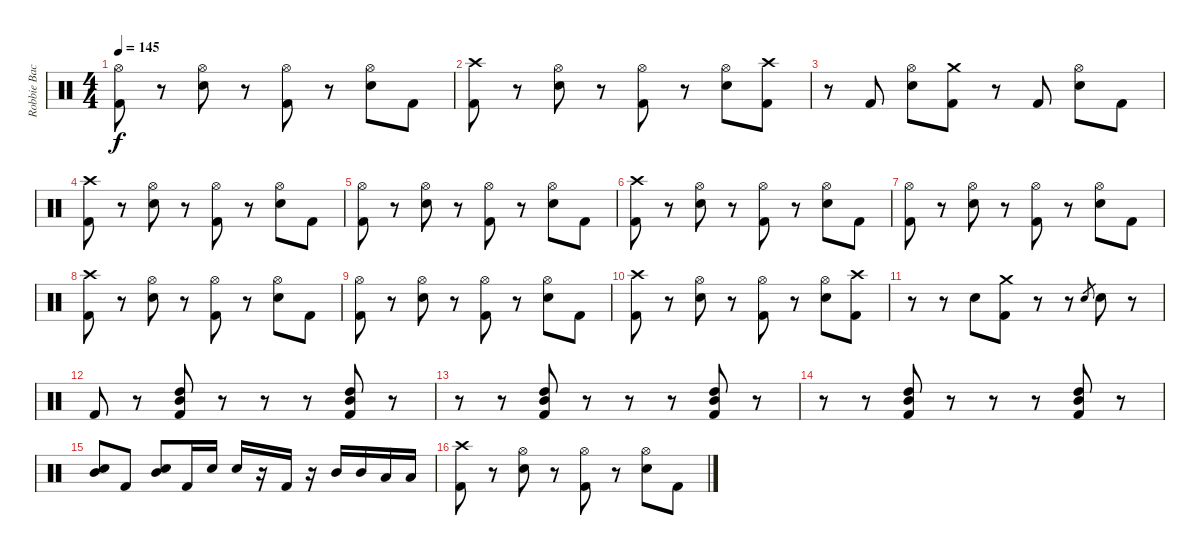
\track ("Robbie Bachman" "Robbie Bac") {instrument percussion}
\staff {score}
\articulation defaults
\ts (4 4)
\tempo 145
\clef neutral
\ks c
("Hi-Hat (open)" "Kick (hit) 2").8{dy f} r.8 ("Hi-Hat (open)" "Snare (hit) 2").8 r.8 ("Hi-Hat (open)" "Kick (hit) 2").8 r.8 ("Hi-Hat (open)" "Snare (hit) 2").8 "Kick (hit) 2".8 |
("Crash high (hit)" "Kick (hit) 2").8 r.8 ("Hi-Hat (open)" "Snare (hit) 2").8 r.8 ("Hi-Hat (open)" "Kick (hit) 2").8 r.8 ("Hi-Hat (open)" "Snare (hit) 2").8 ("Crash high (hit)" "Kick (hit) 2").8 |
r.8 "Kick (hit) 2".8 ("Hi-Hat (open)" "Snare (hit) 2").8 ("Crash medium (hit)" "Kick (hit) 2").8 r.8 "Kick (hit) 2".8 ("Hi-Hat (open)" "Snare (hit) 2").8 "Kick (hit) 2".8 |
("Crash high (hit)" "Kick (hit) 2").8 r.8 ("Hi-Hat (open)" "Snare (hit) 2").8 r.8 ("Hi-Hat (open)" "Kick (hit) 2").8 r.8 ("Hi-Hat (open)" "Snare (hit) 2").8 "Kick (hit) 2".8 |
("Hi-Hat (open)" "Kick (hit) 2").8 r.8 ("Hi-Hat (open)" "Snare (hit) 2").8 r.8 ("Hi-Hat (open)" "Kick (hit) 2").8 r.8 ("Hi-Hat (open)" "Snare (hit) 2").8 "Kick (hit) 2".8 |
("Crash high (hit)" "Kick (hit) 2").8 r.8 ("Hi-Hat (open)" "Snare (hit) 2").8 r.8 ("Hi-Hat (open)" "Kick (hit) 2").8 r.8 ("Hi-Hat (open)" "Snare (hit) 2").8 "Kick (hit) 2".8 |
("Hi-Hat (open)" "Kick (hit) 2").8 r.8 ("Hi-Hat (open)" "Snare (hit) 2").8 r.8 ("Hi-Hat (open)" "Kick (hit) 2").8 r.8 ("Hi-Hat (open)" "Snare (hit) 2").8 "Kick (hit) 2".8 |
("Crash high (hit)" "Kick (hit) 2").8 r.8 ("Hi-Hat (open)" "Snare (hit) 2").8 r.8 ("Hi-Hat (open)" "Kick (hit) 2").8 r.8 ("Hi-Hat (open)" "Snare (hit) 2").8 "Kick (hit) 2".8 |
("Hi-Hat (open)" "Kick (hit) 2").8 r.8 ("Hi-Hat (open)" "Snare (hit) 2").8 r.8 ("Hi-Hat (open)" "Kick (hit) 2").8 r.8 ("Hi-Hat (open)" "Snare (hit) 2").8 "Kick (hit) 2".8 |
("Crash high (hit)" "Kick (hit) 2").8 r.8 ("Hi-Hat (open)" "Snare (hit) 2").8 r.8 ("Hi-Hat (open)" "Kick (hit) 2").8 r.8 ("Hi-Hat (open)" "Snare (hit) 2").8 ("Crash high (hit)" "Kick (hit) 2").8 |
r.8 r.8 "Snare (hit) 2".8 ("Crash medium (hit)" "Kick (hit) 2").8 r.8 r.8 "Snare (hit) 2".8{gr} "Snare (hit) 2".8 r.8 |
"Kick (hit) 2".8 r.8 ("Mid Tom (hit)" "High Tom (hit)" "Kick (hit) 2").8 r.8 r.8 r.8 ("Mid Tom (hit)" "High Tom (hit)" "Kick (hit) 2").8 r.8 |
r.8 r.8 ("Mid Tom (hit)" "High Tom (hit)" "Kick (hit) 2").8 r.8 r.8 r.8 ("Mid Tom (hit)" "High Tom (hit)" "Kick (hit) 2").8 r.8 |
r.8 r.8 ("Mid Tom (hit)" "High Tom (hit)" "Kick (hit) 2").8 r.8 r.8 r.8 ("Mid Tom (hit)" "High Tom (hit)" "Kick (hit) 2").8 r.8 |
("Mid Tom (hit)" "Snare (hit) 2").8 "Kick (hit) 2".8 ("Mid Tom (hit)" "Snare (hit) 2").8 "Kick (hit) 2".16 "Snare (hit) 2".16 "Snare (hit) 2".16 r.16 "Kick (hit) 2".16 r.16 "Mid Tom (hit)".16 "Mid Tom (hit)".16 "Low Tom (hit)".16 "Low Tom (hit)".16 |
("Crash high (hit)" "Kick (hit) 2").8 r.8 ("Hi-Hat (open)" "Snare (hit) 2").8 r.8 ("Hi-Hat (open)" "Kick (hit) 2").8 r.8 ("Hi-Hat (open)" "Snare (hit) 2").8 "Kick (hit) 2".8
